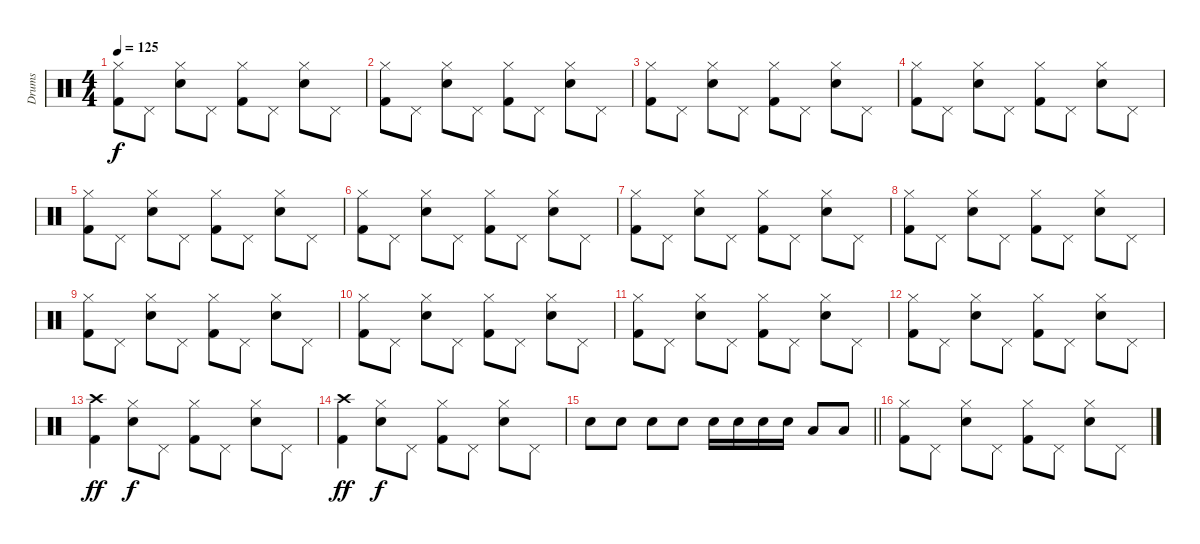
\track ("Drums" "Drums") {instrument percussion}
\staff {score}
\articulation defaults
\ts (4 4)
\tempo 125
\clef neutral
\ks c
("Hi-Hat (closed)" "Kick (hit) 2").8{dy f} "Pedal Hi-Hat (hit)".8 ("Hi-Hat (closed)" "Electric Snare (hit)").8 "Pedal Hi-Hat (hit)".8 ("Hi-Hat (closed)" "Kick (hit) 2").8 "Pedal Hi-Hat (hit)".8 ("Hi-Hat (closed)" "Electric Snare (hit)").8 "Pedal Hi-Hat (hit)".8 |
("Hi-Hat (closed)" "Kick (hit) 2").8 "Pedal Hi-Hat (hit)".8 ("Hi-Hat (closed)" "Electric Snare (hit)").8 "Pedal Hi-Hat (hit)".8 ("Hi-Hat (closed)" "Kick (hit) 2").8 "Pedal Hi-Hat (hit)".8 ("Hi-Hat (closed)" "Electric Snare (hit)").8 "Pedal Hi-Hat (hit)".8 |
("Hi-Hat (closed)" "Kick (hit) 2").8 "Pedal Hi-Hat (hit)".8 ("Hi-Hat (closed)" "Electric Snare (hit)").8 "Pedal Hi-Hat (hit)".8 ("Hi-Hat (closed)" "Kick (hit) 2").8 "Pedal Hi-Hat (hit)".8 ("Hi-Hat (closed)" "Electric Snare (hit)").8 "Pedal Hi-Hat (hit)".8 |
("Hi-Hat (closed)" "Kick (hit) 2").8 "Pedal Hi-Hat (hit)".8 ("Hi-Hat (closed)" "Electric Snare (hit)").8 "Pedal Hi-Hat (hit)".8 ("Hi-Hat (closed)" "Kick (hit) 2").8 "Pedal Hi-Hat (hit)".8 ("Hi-Hat (closed)" "Electric Snare (hit)").8 "Pedal Hi-Hat (hit)".8 |
("Hi-Hat (closed)" "Kick (hit) 2").8 "Pedal Hi-Hat (hit)".8 ("Hi-Hat (closed)" "Electric Snare (hit)").8 "Pedal Hi-Hat (hit)".8 ("Hi-Hat (closed)" "Kick (hit) 2").8 "Pedal Hi-Hat (hit)".8 ("Hi-Hat (closed)" "Electric Snare (hit)").8 "Pedal Hi-Hat (hit)".8 |
("Hi-Hat (closed)" "Kick (hit) 2").8 "Pedal Hi-Hat (hit)".8 ("Hi-Hat (closed)" "Electric Snare (hit)").8 "Pedal Hi-Hat (hit)".8 ("Hi-Hat (closed)" "Kick (hit) 2").8 "Pedal Hi-Hat (hit)".8 ("Hi-Hat (closed)" "Electric Snare (hit)").8 "Pedal Hi-Hat (hit)".8 |
("Hi-Hat (closed)" "Kick (hit) 2").8 "Pedal Hi-Hat (hit)".8 ("Hi-Hat (closed)" "Electric Snare (hit)").8 "Pedal Hi-Hat (hit)".8 ("Hi-Hat (closed)" "Kick (hit) 2").8 "Pedal Hi-Hat (hit)".8 ("Hi-Hat (closed)" "Electric Snare (hit)").8 "Pedal Hi-Hat (hit)".8 |
("Hi-Hat (closed)" "Kick (hit) 2").8 "Pedal Hi-Hat (hit)".8 ("Hi-Hat (closed)" "Electric Snare (hit)").8 "Pedal Hi-Hat (hit)".8 ("Hi-Hat (closed)" "Kick (hit) 2").8 "Pedal Hi-Hat (hit)".8 ("Hi-Hat (closed)" "Electric Snare (hit)").8 "Pedal Hi-Hat (hit)".8 |
("Hi-Hat (closed)" "Kick (hit) 2").8 "Pedal Hi-Hat (hit)".8 ("Hi-Hat (closed)" "Electric Snare (hit)").8 "Pedal Hi-Hat (hit)".8 ("Hi-Hat (closed)" "Kick (hit) 2").8 "Pedal Hi-Hat (hit)".8 ("Hi-Hat (closed)" "Electric Snare (hit)").8 "Pedal Hi-Hat (hit)".8 |
("Hi-Hat (closed)" "Kick (hit) 2").8 "Pedal Hi-Hat (hit)".8 ("Hi-Hat (closed)" "Electric Snare (hit)").8 "Pedal Hi-Hat (hit)".8 ("Hi-Hat (closed)" "Kick (hit) 2").8 "Pedal Hi-Hat (hit)".8 ("Hi-Hat (closed)" "Electric Snare (hit)").8 "Pedal Hi-Hat (hit)".8 |
("Hi-Hat (closed)" "Kick (hit) 2").8 "Pedal Hi-Hat (hit)".8 ("Hi-Hat (closed)" "Electric Snare (hit)").8 "Pedal Hi-Hat (hit)".8 ("Hi-Hat (closed)" "Kick (hit) 2").8 "Pedal Hi-Hat (hit)".8 ("Hi-Hat (closed)" "Electric Snare (hit)").8 "Pedal Hi-Hat (hit)".8 |
("Hi-Hat (closed)" "Kick (hit) 2").8 "Pedal Hi-Hat (hit)".8 ("Hi-Hat (closed)" "Electric Snare (hit)").8 "Pedal Hi-Hat (hit)".8 ("Hi-Hat (closed)" "Kick (hit) 2").8 "Pedal Hi-Hat (hit)".8 ("Hi-Hat (closed)" "Electric Snare (hit)").8 "Pedal Hi-Hat (hit)".8 |
("Crash high (hit)" "Kick (hit) 2").4{dy ff} ("Hi-Hat (closed)" "Electric Snare (hit)").8{dy f} "Pedal Hi-Hat (hit)".8 ("Hi-Hat (closed)" "Kick (hit) 2").8 "Pedal Hi-Hat (hit)".8 ("Hi-Hat (closed)" "Electric Snare (hit)").8 "Pedal Hi-Hat (hit)".8 |
("Crash high (hit)" "Kick (hit) 2").4{dy ff} ("Hi-Hat (closed)" "Electric Snare (hit)").8{dy f} "Pedal Hi-Hat (hit)".8 ("Hi-Hat (closed)" "Kick (hit) 2").8 "Pedal Hi-Hat (hit)".8 ("Hi-Hat (closed)" "Electric Snare (hit)").8 "Pedal Hi-Hat (hit)".8 |
\barLineRight lightlight "Snare (hit) 2".8 "Snare (hit) 2".8 "Snare (hit) 2".8 "Snare (hit) 2".8 "Snare (hit) 2".16 "Snare (hit) 2".16 "Snare (hit) 2".16 "Snare (hit) 2".16 "Low Tom (hit)".8 "Low Tom (hit)".8
|
("Hi-Hat (closed)" "Kick (hit) 2").8 "Pedal Hi-Hat (hit)".8 ("Hi-Hat (closed)" "Electric Snare (hit)").8 "Pedal Hi-Hat (hit)".8 ("Hi-Hat (closed)" "Kick (hit) 2").8 "Pedal Hi-Hat (hit)".8 ("Hi-Hat (closed)" "Electric Snare (hit)").8 "Pedal Hi-Hat (hit)".8
